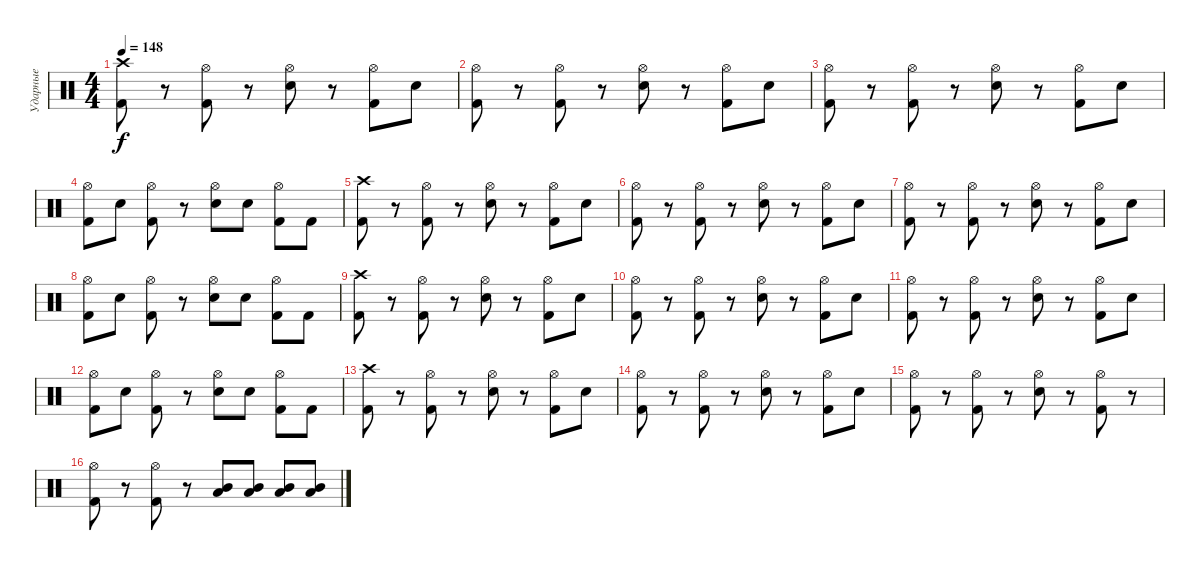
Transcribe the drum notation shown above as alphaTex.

\track ("Ударные" "Ударные") {instrument percussion}
\staff {score}
\articulation defaults
\ts (4 4)
\tempo 148
\clef neutral
\ks c
("Kick (hit) 2" "Crash high (hit)").8{dy f} r.8 ("Kick (hit) 2" "Hi-Hat (open)").8 r.8 ("Electric Snare (hit)" "Hi-Hat (open)").8 r.8 ("Kick (hit) 2" "Hi-Hat (open)").8 "Electric Snare (hit)".8 |
("Kick (hit) 2" "Hi-Hat (open)").8 r.8 ("Kick (hit) 2" "Hi-Hat (open)").8 r.8 ("Electric Snare (hit)" "Hi-Hat (open)").8 r.8 ("Kick (hit) 2" "Hi-Hat (open)").8 "Electric Snare (hit)".8 |
("Kick (hit) 2" "Hi-Hat (open)").8 r.8 ("Kick (hit) 2" "Hi-Hat (open)").8 r.8 ("Electric Snare (hit)" "Hi-Hat (open)").8 r.8 ("Kick (hit) 2" "Hi-Hat (open)").8 "Electric Snare (hit)".8 |
("Kick (hit) 2" "Hi-Hat (open)").8 "Electric Snare (hit)".8 ("Kick (hit) 2" "Hi-Hat (open)").8 r.8 ("Electric Snare (hit)" "Hi-Hat (open)").8 "Electric Snare (hit)".8 ("Kick (hit) 2" "Hi-Hat (open)").8 "Kick (hit) 2".8 |
("Kick (hit) 2" "Crash high (hit)").8 r.8 ("Kick (hit) 2" "Hi-Hat (open)").8 r.8 ("Electric Snare (hit)" "Hi-Hat (open)").8 r.8 ("Kick (hit) 2" "Hi-Hat (open)").8 "Electric Snare (hit)".8 |
("Kick (hit) 2" "Hi-Hat (open)").8 r.8 ("Kick (hit) 2" "Hi-Hat (open)").8 r.8 ("Electric Snare (hit)" "Hi-Hat (open)").8 r.8 ("Kick (hit) 2" "Hi-Hat (open)").8 "Electric Snare (hit)".8 |
("Kick (hit) 2" "Hi-Hat (open)").8 r.8 ("Kick (hit) 2" "Hi-Hat (open)").8 r.8 ("Electric Snare (hit)" "Hi-Hat (open)").8 r.8 ("Kick (hit) 2" "Hi-Hat (open)").8 "Electric Snare (hit)".8 |
("Kick (hit) 2" "Hi-Hat (open)").8 "Electric Snare (hit)".8 ("Kick (hit) 2" "Hi-Hat (open)").8 r.8 ("Electric Snare (hit)" "Hi-Hat (open)").8 "Electric Snare (hit)".8 ("Kick (hit) 2" "Hi-Hat (open)").8 "Kick (hit) 2".8 |
("Kick (hit) 2" "Crash high (hit)").8 r.8 ("Kick (hit) 2" "Hi-Hat (open)").8 r.8 ("Electric Snare (hit)" "Hi-Hat (open)").8 r.8 ("Kick (hit) 2" "Hi-Hat (open)").8 "Electric Snare (hit)".8 |
("Kick (hit) 2" "Hi-Hat (open)").8 r.8 ("Kick (hit) 2" "Hi-Hat (open)").8 r.8 ("Electric Snare (hit)" "Hi-Hat (open)").8 r.8 ("Kick (hit) 2" "Hi-Hat (open)").8 "Electric Snare (hit)".8 |
("Kick (hit) 2" "Hi-Hat (open)").8 r.8 ("Kick (hit) 2" "Hi-Hat (open)").8 r.8 ("Electric Snare (hit)" "Hi-Hat (open)").8 r.8 ("Kick (hit) 2" "Hi-Hat (open)").8 "Electric Snare (hit)".8 |
("Kick (hit) 2" "Hi-Hat (open)").8 "Electric Snare (hit)".8 ("Kick (hit) 2" "Hi-Hat (open)").8 r.8 ("Electric Snare (hit)" "Hi-Hat (open)").8 "Electric Snare (hit)".8 ("Kick (hit) 2" "Hi-Hat (open)").8 "Kick (hit) 2".8 |
("Kick (hit) 2" "Crash high (hit)").8 r.8 ("Kick (hit) 2" "Hi-Hat (open)").8 r.8 ("Electric Snare (hit)" "Hi-Hat (open)").8 r.8 ("Kick (hit) 2" "Hi-Hat (open)").8 "Electric Snare (hit)".8 |
("Kick (hit) 2" "Hi-Hat (open)").8 r.8 ("Kick (hit) 2" "Hi-Hat (open)").8 r.8 ("Electric Snare (hit)" "Hi-Hat (open)").8 r.8 ("Kick (hit) 2" "Hi-Hat (open)").8 "Electric Snare (hit)".8 |
("Kick (hit) 2" "Hi-Hat (open)").8 r.8 ("Kick (hit) 2" "Hi-Hat (open)").8 r.8 ("Electric Snare (hit)" "Hi-Hat (open)").8 r.8 ("Kick (hit) 2" "Hi-Hat (open)").8 r.8 |
("Kick (hit) 2" "Hi-Hat (open)").8 r.8 ("Kick (hit) 2" "Hi-Hat (open)").8 r.8 ("Mid Tom (hit)" "Low Tom (hit)").8 ("Mid Tom (hit)" "Low Tom (hit)").8 ("Mid Tom (hit)" "Low Tom (hit)").8 ("Mid Tom (hit)" "Low Tom (hit)").8
